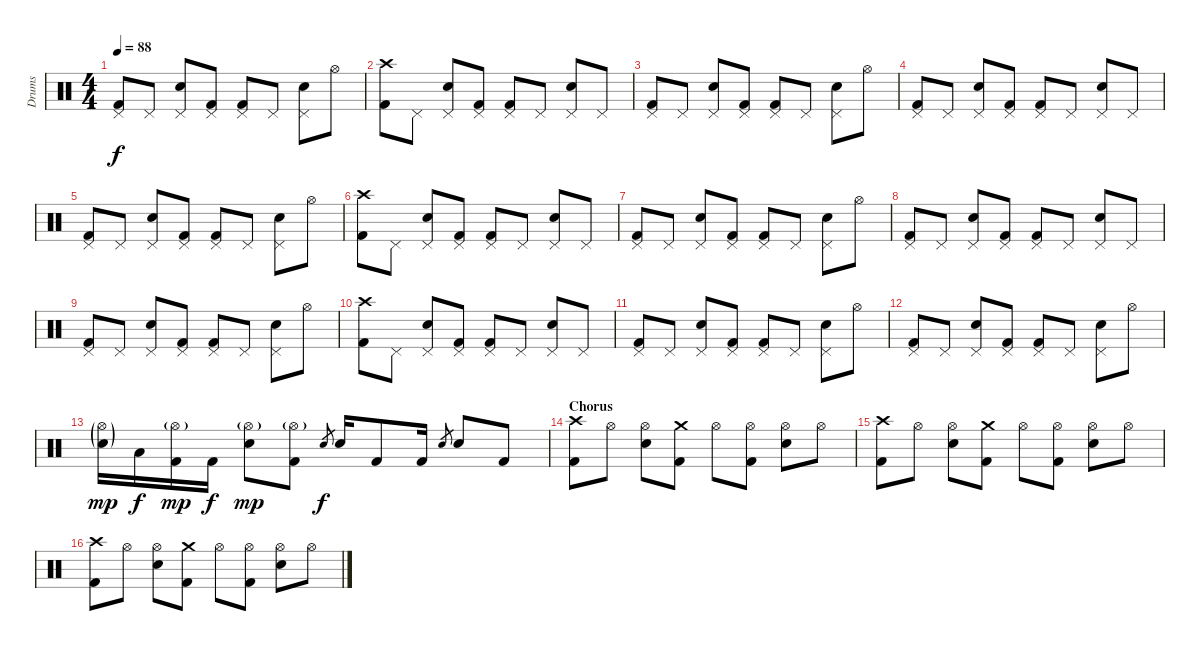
\track ("Drums" "Drums") {instrument percussion}
\staff {score}
\articulation defaults
\ts (4 4)
\tempo 88
\clef neutral
\ks c
("Pedal Hi-Hat (hit)" "Kick (hit) 2").8{dy f} "Pedal Hi-Hat (hit)".8 ("Pedal Hi-Hat (hit)" "Electric Snare (hit)").8 ("Pedal Hi-Hat (hit)" "Kick (hit) 2").8 ("Pedal Hi-Hat (hit)" "Kick (hit) 2").8 "Pedal Hi-Hat (hit)".8 ("Pedal Hi-Hat (hit)" "Electric Snare (hit)").8 "Hi-Hat (open)".8 |
("Crash high (hit)" "Kick (hit) 2").8 "Pedal Hi-Hat (hit)".8 ("Pedal Hi-Hat (hit)" "Electric Snare (hit)").8 ("Pedal Hi-Hat (hit)" "Kick (hit) 2").8 ("Pedal Hi-Hat (hit)" "Kick (hit) 2").8 "Pedal Hi-Hat (hit)".8 ("Pedal Hi-Hat (hit)" "Electric Snare (hit)").8 "Pedal Hi-Hat (hit)".8 |
("Pedal Hi-Hat (hit)" "Kick (hit) 2").8 "Pedal Hi-Hat (hit)".8 ("Pedal Hi-Hat (hit)" "Electric Snare (hit)").8 ("Pedal Hi-Hat (hit)" "Kick (hit) 2").8 ("Pedal Hi-Hat (hit)" "Kick (hit) 2").8 "Pedal Hi-Hat (hit)".8 ("Pedal Hi-Hat (hit)" "Electric Snare (hit)").8 "Hi-Hat (open)".8 |
("Pedal Hi-Hat (hit)" "Kick (hit) 2").8 "Pedal Hi-Hat (hit)".8 ("Pedal Hi-Hat (hit)" "Electric Snare (hit)").8 ("Pedal Hi-Hat (hit)" "Kick (hit) 2").8 ("Pedal Hi-Hat (hit)" "Kick (hit) 2").8 "Pedal Hi-Hat (hit)".8 ("Pedal Hi-Hat (hit)" "Electric Snare (hit)").8 "Pedal Hi-Hat (hit)".8 |
("Pedal Hi-Hat (hit)" "Kick (hit) 2").8 "Pedal Hi-Hat (hit)".8 ("Pedal Hi-Hat (hit)" "Electric Snare (hit)").8 ("Pedal Hi-Hat (hit)" "Kick (hit) 2").8 ("Pedal Hi-Hat (hit)" "Kick (hit) 2").8 "Pedal Hi-Hat (hit)".8 ("Pedal Hi-Hat (hit)" "Electric Snare (hit)").8 "Hi-Hat (open)".8 |
("Crash high (hit)" "Kick (hit) 2").8 "Pedal Hi-Hat (hit)".8 ("Pedal Hi-Hat (hit)" "Electric Snare (hit)").8 ("Pedal Hi-Hat (hit)" "Kick (hit) 2").8 ("Pedal Hi-Hat (hit)" "Kick (hit) 2").8 "Pedal Hi-Hat (hit)".8 ("Pedal Hi-Hat (hit)" "Electric Snare (hit)").8 "Pedal Hi-Hat (hit)".8 |
("Pedal Hi-Hat (hit)" "Kick (hit) 2").8 "Pedal Hi-Hat (hit)".8 ("Pedal Hi-Hat (hit)" "Electric Snare (hit)").8 ("Pedal Hi-Hat (hit)" "Kick (hit) 2").8 ("Pedal Hi-Hat (hit)" "Kick (hit) 2").8 "Pedal Hi-Hat (hit)".8 ("Pedal Hi-Hat (hit)" "Electric Snare (hit)").8 "Hi-Hat (open)".8 |
("Pedal Hi-Hat (hit)" "Kick (hit) 2").8 "Pedal Hi-Hat (hit)".8 ("Pedal Hi-Hat (hit)" "Electric Snare (hit)").8 ("Pedal Hi-Hat (hit)" "Kick (hit) 2").8 ("Pedal Hi-Hat (hit)" "Kick (hit) 2").8 "Pedal Hi-Hat (hit)".8 ("Pedal Hi-Hat (hit)" "Electric Snare (hit)").8 "Pedal Hi-Hat (hit)".8 |
("Pedal Hi-Hat (hit)" "Kick (hit) 2").8 "Pedal Hi-Hat (hit)".8 ("Pedal Hi-Hat (hit)" "Electric Snare (hit)").8 ("Pedal Hi-Hat (hit)" "Kick (hit) 2").8 ("Pedal Hi-Hat (hit)" "Kick (hit) 2").8 "Pedal Hi-Hat (hit)".8 ("Pedal Hi-Hat (hit)" "Electric Snare (hit)").8 "Hi-Hat (open)".8 |
("Crash high (hit)" "Kick (hit) 2").8 "Pedal Hi-Hat (hit)".8 ("Pedal Hi-Hat (hit)" "Electric Snare (hit)").8 ("Pedal Hi-Hat (hit)" "Kick (hit) 2").8 ("Pedal Hi-Hat (hit)" "Kick (hit) 2").8 "Pedal Hi-Hat (hit)".8 ("Pedal Hi-Hat (hit)" "Electric Snare (hit)").8 "Pedal Hi-Hat (hit)".8 |
("Pedal Hi-Hat (hit)" "Kick (hit) 2").8 "Pedal Hi-Hat (hit)".8 ("Pedal Hi-Hat (hit)" "Electric Snare (hit)").8 ("Pedal Hi-Hat (hit)" "Kick (hit) 2").8 ("Pedal Hi-Hat (hit)" "Kick (hit) 2").8 "Pedal Hi-Hat (hit)".8 ("Pedal Hi-Hat (hit)" "Electric Snare (hit)").8 "Hi-Hat (open)".8 |
("Pedal Hi-Hat (hit)" "Kick (hit) 2").8 "Pedal Hi-Hat (hit)".8 ("Pedal Hi-Hat (hit)" "Electric Snare (hit)").8 ("Pedal Hi-Hat (hit)" "Kick (hit) 2").8 ("Pedal Hi-Hat (hit)" "Kick (hit) 2").8 "Pedal Hi-Hat (hit)".8 ("Pedal Hi-Hat (hit)" "Electric Snare (hit)").8 "Hi-Hat (open)".8 |
("Hi-Hat (open)"{g} "Electric Snare (hit)"{g}).16{dy mp} "Low Tom (hit)".16{dy f} ("Hi-Hat (open)"{g} "Kick (hit) 2").16{dy mp} "Kick (hit) 2".16{dy f} ("Hi-Hat (open)"{g} "Electric Snare (hit)").8{dy mp} ("Hi-Hat (open)"{g} "Kick (hit) 2").8 "Electric Snare (hit)".8{gr dy f} "Electric Snare (hit)".16 "Kick (hit) 2".8 "Kick (hit) 2".16 "Electric Snare (hit)".8{gr} "Electric Snare (hit)".8 "Kick (hit) 2".8 |
\section ("" "Chorus")
("Crash high (hit)" "Kick (hit) 2").8 "Hi-Hat (open)".8 ("Hi-Hat (open)" "Electric Snare (hit)").8 ("Crash medium (hit)" "Kick (hit) 2").8 "Hi-Hat (open)".8 ("Hi-Hat (open)" "Kick (hit) 2").8 ("Hi-Hat (open)" "Electric Snare (hit)").8 "Hi-Hat (open)".8 |
("Crash high (hit)" "Kick (hit) 2").8 "Hi-Hat (open)".8 ("Hi-Hat (open)" "Electric Snare (hit)").8 ("Crash medium (hit)" "Kick (hit) 2").8 "Hi-Hat (open)".8 ("Hi-Hat (open)" "Kick (hit) 2").8 ("Hi-Hat (open)" "Electric Snare (hit)").8 "Hi-Hat (open)".8 |
("Crash high (hit)" "Kick (hit) 2").8 "Hi-Hat (open)".8 ("Hi-Hat (open)" "Electric Snare (hit)").8 ("Crash medium (hit)" "Kick (hit) 2").8 "Hi-Hat (open)".8 ("Hi-Hat (open)" "Kick (hit) 2").8 ("Hi-Hat (open)" "Electric Snare (hit)").8 "Hi-Hat (open)".8
